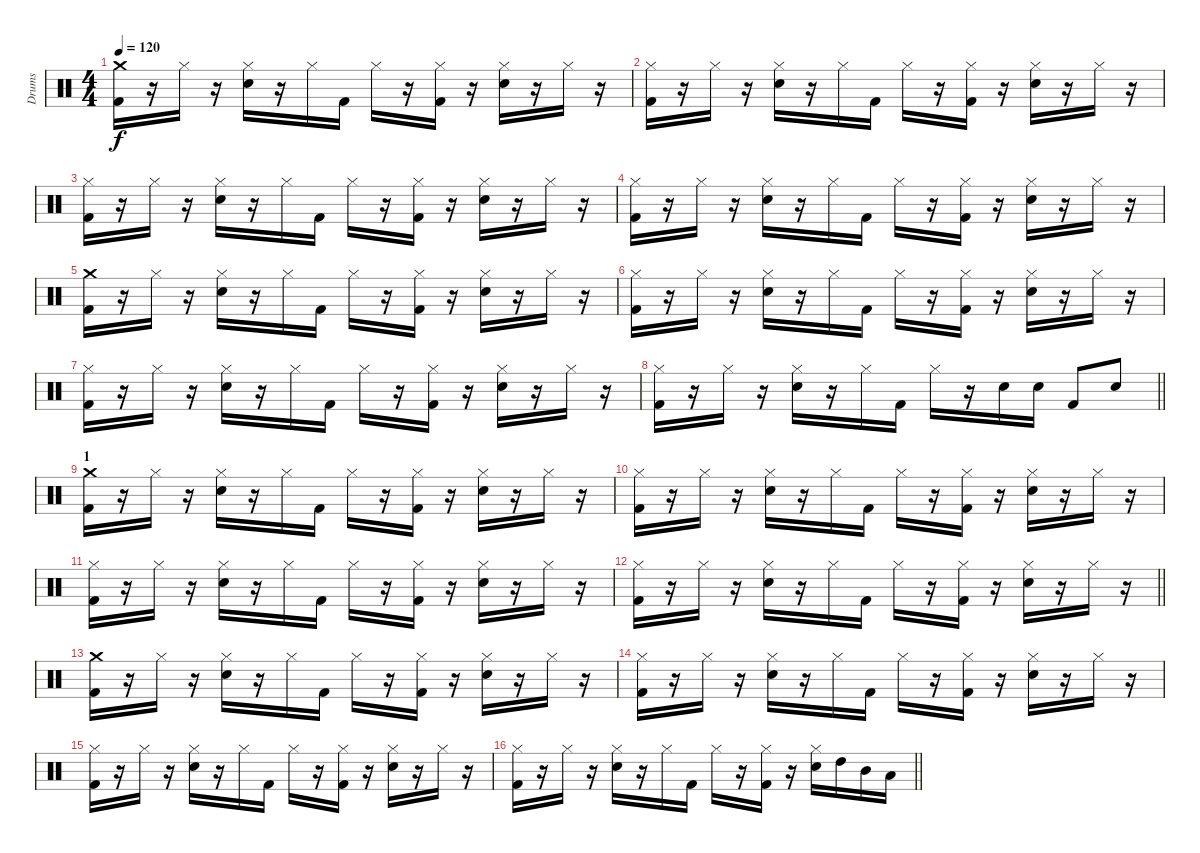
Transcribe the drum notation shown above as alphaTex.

\track ("Drums" "Drums") {instrument percussion}
\staff {score}
\articulation defaults
\ts (4 4)
\tempo 120
\clef neutral
\ks c
("Crash medium (hit)" "Kick (hit) 2").16{dy f} r.16 "Hi-Hat (closed)".16 r.16 ("Hi-Hat (closed)" "Snare (hit) 2").16 r.16 "Hi-Hat (closed)".16 "Kick (hit) 2".16 "Hi-Hat (closed)".16 r.16 ("Hi-Hat (closed)" "Kick (hit) 2").16 r.16 ("Hi-Hat (closed)" "Snare (hit) 2").16 r.16 "Hi-Hat (closed)".16 r.16 |
("Hi-Hat (closed)" "Kick (hit) 2").16 r.16 "Hi-Hat (closed)".16 r.16 ("Hi-Hat (closed)" "Snare (hit) 2").16 r.16 "Hi-Hat (closed)".16 "Kick (hit) 2".16 "Hi-Hat (closed)".16 r.16 ("Hi-Hat (closed)" "Kick (hit) 2").16 r.16 ("Hi-Hat (closed)" "Snare (hit) 2").16 r.16 "Hi-Hat (closed)".16 r.16 |
("Hi-Hat (closed)" "Kick (hit) 2").16 r.16 "Hi-Hat (closed)".16 r.16 ("Hi-Hat (closed)" "Snare (hit) 2").16 r.16 "Hi-Hat (closed)".16 "Kick (hit) 2".16 "Hi-Hat (closed)".16 r.16 ("Hi-Hat (closed)" "Kick (hit) 2").16 r.16 ("Hi-Hat (closed)" "Snare (hit) 2").16 r.16 "Hi-Hat (closed)".16 r.16 |
("Hi-Hat (closed)" "Kick (hit) 2").16 r.16 "Hi-Hat (closed)".16 r.16 ("Hi-Hat (closed)" "Snare (hit) 2").16 r.16 "Hi-Hat (closed)".16 "Kick (hit) 2".16 "Hi-Hat (closed)".16 r.16 ("Hi-Hat (closed)" "Kick (hit) 2").16 r.16 ("Hi-Hat (closed)" "Snare (hit) 2").16 r.16 "Hi-Hat (closed)".16 r.16 |
("Crash medium (hit)" "Kick (hit) 2").16 r.16 "Hi-Hat (closed)".16 r.16 ("Hi-Hat (closed)" "Snare (hit) 2").16 r.16 "Hi-Hat (closed)".16 "Kick (hit) 2".16 "Hi-Hat (closed)".16 r.16 ("Hi-Hat (closed)" "Kick (hit) 2").16 r.16 ("Hi-Hat (closed)" "Snare (hit) 2").16 r.16 "Hi-Hat (closed)".16 r.16 |
("Hi-Hat (closed)" "Kick (hit) 2").16 r.16 "Hi-Hat (closed)".16 r.16 ("Hi-Hat (closed)" "Snare (hit) 2").16 r.16 "Hi-Hat (closed)".16 "Kick (hit) 2".16 "Hi-Hat (closed)".16 r.16 ("Hi-Hat (closed)" "Kick (hit) 2").16 r.16 ("Hi-Hat (closed)" "Snare (hit) 2").16 r.16 "Hi-Hat (closed)".16 r.16 |
("Hi-Hat (closed)" "Kick (hit) 2").16 r.16 "Hi-Hat (closed)".16 r.16 ("Hi-Hat (closed)" "Snare (hit) 2").16 r.16 "Hi-Hat (closed)".16 "Kick (hit) 2".16 "Hi-Hat (closed)".16 r.16 ("Hi-Hat (closed)" "Kick (hit) 2").16 r.16 ("Hi-Hat (closed)" "Snare (hit) 2").16 r.16 "Hi-Hat (closed)".16 r.16 |
\barLineRight lightlight
("Hi-Hat (closed)" "Kick (hit) 2").16 r.16 "Hi-Hat (closed)".16 r.16 ("Hi-Hat (closed)" "Snare (hit) 2").16 r.16 "Hi-Hat (closed)".16 "Kick (hit) 2".16 "Hi-Hat (closed)".16 r.16 "Snare (hit) 2".16 "Snare (hit) 2".16 "Kick (hit) 2".8 "Snare (hit) 2".8 |
\section ("" "1")
("Crash medium (hit)" "Kick (hit) 2").16 r.16 "Hi-Hat (closed)".16 r.16 ("Hi-Hat (closed)" "Snare (hit) 2").16 r.16 "Hi-Hat (closed)".16 "Kick (hit) 2".16 "Hi-Hat (closed)".16 r.16 ("Hi-Hat (closed)" "Kick (hit) 2").16 r.16 ("Hi-Hat (closed)" "Snare (hit) 2").16 r.16 "Hi-Hat (closed)".16 r.16 |
("Hi-Hat (closed)" "Kick (hit) 2").16 r.16 "Hi-Hat (closed)".16 r.16 ("Hi-Hat (closed)" "Snare (hit) 2").16 r.16 "Hi-Hat (closed)".16 "Kick (hit) 2".16 "Hi-Hat (closed)".16 r.16 ("Hi-Hat (closed)" "Kick (hit) 2").16 r.16 ("Hi-Hat (closed)" "Snare (hit) 2").16 r.16 "Hi-Hat (closed)".16 r.16 |
("Hi-Hat (closed)" "Kick (hit) 2").16 r.16 "Hi-Hat (closed)".16 r.16 ("Hi-Hat (closed)" "Snare (hit) 2").16 r.16 "Hi-Hat (closed)".16 "Kick (hit) 2".16 "Hi-Hat (closed)".16 r.16 ("Hi-Hat (closed)" "Kick (hit) 2").16 r.16 ("Hi-Hat (closed)" "Snare (hit) 2").16 r.16 "Hi-Hat (closed)".16 r.16 |
\barLineRight lightlight
("Hi-Hat (closed)" "Kick (hit) 2").16 r.16 "Hi-Hat (closed)".16 r.16 ("Hi-Hat (closed)" "Snare (hit) 2").16 r.16 "Hi-Hat (closed)".16 "Kick (hit) 2".16 "Hi-Hat (closed)".16 r.16 ("Hi-Hat (closed)" "Kick (hit) 2").16 r.16 ("Hi-Hat (closed)" "Snare (hit) 2").16 r.16 "Hi-Hat (closed)".16 r.16 |
("Crash medium (hit)" "Kick (hit) 2").16 r.16 "Hi-Hat (closed)".16 r.16 ("Hi-Hat (closed)" "Snare (hit) 2").16 r.16 "Hi-Hat (closed)".16 "Kick (hit) 2".16 "Hi-Hat (closed)".16 r.16 ("Hi-Hat (closed)" "Kick (hit) 2").16 r.16 ("Hi-Hat (closed)" "Snare (hit) 2").16 r.16 "Hi-Hat (closed)".16 r.16 |
("Hi-Hat (closed)" "Kick (hit) 2").16 r.16 "Hi-Hat (closed)".16 r.16 ("Hi-Hat (closed)" "Snare (hit) 2").16 r.16 "Hi-Hat (closed)".16 "Kick (hit) 2".16 "Hi-Hat (closed)".16 r.16 ("Hi-Hat (closed)" "Kick (hit) 2").16 r.16 ("Hi-Hat (closed)" "Snare (hit) 2").16 r.16 "Hi-Hat (closed)".16 r.16 |
("Hi-Hat (closed)" "Kick (hit) 2").16 r.16 "Hi-Hat (closed)".16 r.16 ("Hi-Hat (closed)" "Snare (hit) 2").16 r.16 "Hi-Hat (closed)".16 "Kick (hit) 2".16 "Hi-Hat (closed)".16 r.16 ("Hi-Hat (closed)" "Kick (hit) 2").16 r.16 ("Hi-Hat (closed)" "Snare (hit) 2").16 r.16 "Hi-Hat (closed)".16 r.16 |
\barLineRight lightlight
("Hi-Hat (closed)" "Kick (hit) 2").16 r.16 "Hi-Hat (closed)".16 r.16 ("Hi-Hat (closed)" "Snare (hit) 2").16 r.16 "Hi-Hat (closed)".16 "Kick (hit) 2".16 "Hi-Hat (closed)".16 r.16 ("Hi-Hat (closed)" "Kick (hit) 2").16 r.16 ("Hi-Hat (closed)" "Snare (hit) 2").16 "High Tom (hit)".16 "Mid Tom (hit)".16 "Low Tom (hit)".16
